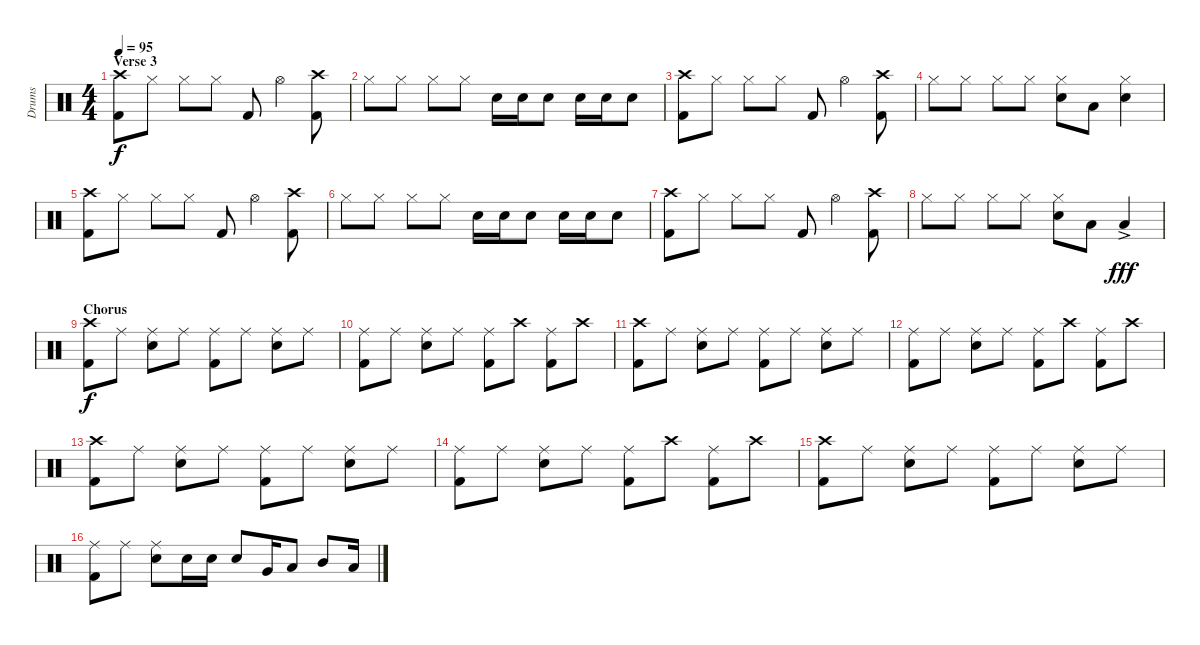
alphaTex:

\track ("Drums" "Drums") {instrument percussion}
\staff {score}
\articulation defaults
\ts (4 4)
\section ("" "Verse 3")
\tempo 95
\clef neutral
\ks c
("Kick (hit) 2" "Crash high (hit)").8{dy f} "Hi-Hat (closed)".8 "Hi-Hat (closed)".8 "Hi-Hat (closed)".8 "Kick (hit) 2".8 "Hi-Hat (open)".4 ("Kick (hit) 2" "Crash high (hit)").8 |
"Hi-Hat (closed)".8 "Hi-Hat (closed)".8 "Hi-Hat (closed)".8 "Hi-Hat (closed)".8 "Snare (hit) 2".16 "Snare (hit) 2".16 "Snare (hit) 2".8 "Snare (hit) 2".16 "Snare (hit) 2".16 "Snare (hit) 2".8 |
("Kick (hit) 2" "Crash high (hit)").8 "Hi-Hat (closed)".8 "Hi-Hat (closed)".8 "Hi-Hat (closed)".8 "Kick (hit) 2".8 "Hi-Hat (open)".4 ("Kick (hit) 2" "Crash high (hit)").8 |
"Hi-Hat (closed)".8 "Hi-Hat (closed)".8 "Hi-Hat (closed)".8 "Hi-Hat (closed)".8 ("Snare (hit) 2" "Hi-Hat (closed)").8 "Low Tom (hit)".8 ("Snare (hit) 2" "Hi-Hat (closed)").4 |
("Kick (hit) 2" "Crash high (hit)").8 "Hi-Hat (closed)".8 "Hi-Hat (closed)".8 "Hi-Hat (closed)".8 "Kick (hit) 2".8 "Hi-Hat (open)".4 ("Kick (hit) 2" "Crash high (hit)").8 |
"Hi-Hat (closed)".8 "Hi-Hat (closed)".8 "Hi-Hat (closed)".8 "Hi-Hat (closed)".8 "Snare (hit) 2".16 "Snare (hit) 2".16 "Snare (hit) 2".8 "Snare (hit) 2".16 "Snare (hit) 2".16 "Snare (hit) 2".8 |
("Kick (hit) 2" "Crash high (hit)").8 "Hi-Hat (closed)".8 "Hi-Hat (closed)".8 "Hi-Hat (closed)".8 "Kick (hit) 2".8 "Hi-Hat (open)".4 ("Kick (hit) 2" "Crash high (hit)").8 |
"Hi-Hat (closed)".8 "Hi-Hat (closed)".8 "Hi-Hat (closed)".8 "Hi-Hat (closed)".8 ("Snare (hit) 2" "Hi-Hat (closed)").8 "Low Tom (hit)".8 "Low Floor Tom (hit)"{ac}.4{dy fff} |
\section ("" "Chorus")
("Kick (hit) 2" "Crash high (hit)").8{dy f} "Ride (middle)".8 ("Snare (hit) 2" "Ride (middle)").8 "Ride (middle)".8 ("Kick (hit) 2" "Ride (middle)").8 "Ride (middle)".8 ("Snare (hit) 2" "Ride (middle)").8 "Ride (middle)".8 |
("Kick (hit) 2" "Ride (middle)").8 "Ride (middle)".8 ("Snare (hit) 2" "Ride (middle)").8 "Ride (middle)".8 ("Kick (hit) 2" "Ride (middle)").8 "Crash high (hit)".8 ("Kick (hit) 2" "Ride (middle)").8 "Crash high (hit)".8 |
("Kick (hit) 2" "Crash high (hit)").8 "Ride (middle)".8 ("Snare (hit) 2" "Ride (middle)").8 "Ride (middle)".8 ("Kick (hit) 2" "Ride (middle)").8 "Ride (middle)".8 ("Snare (hit) 2" "Ride (middle)").8 "Ride (middle)".8 |
("Kick (hit) 2" "Ride (middle)").8 "Ride (middle)".8 ("Snare (hit) 2" "Ride (middle)").8 "Ride (middle)".8 ("Kick (hit) 2" "Ride (middle)").8 "Crash high (hit)".8 ("Kick (hit) 2" "Ride (middle)").8 "Crash high (hit)".8 |
("Kick (hit) 2" "Crash high (hit)").8 "Ride (middle)".8 ("Snare (hit) 2" "Ride (middle)").8 "Ride (middle)".8 ("Kick (hit) 2" "Ride (middle)").8 "Ride (middle)".8 ("Snare (hit) 2" "Ride (middle)").8 "Ride (middle)".8 |
("Kick (hit) 2" "Ride (middle)").8 "Ride (middle)".8 ("Snare (hit) 2" "Ride (middle)").8 "Ride (middle)".8 ("Kick (hit) 2" "Ride (middle)").8 "Crash high (hit)".8 ("Kick (hit) 2" "Ride (middle)").8 "Crash high (hit)".8 |
("Kick (hit) 2" "Crash high (hit)").8 "Ride (middle)".8 ("Snare (hit) 2" "Ride (middle)").8 "Ride (middle)".8 ("Kick (hit) 2" "Ride (middle)").8 "Ride (middle)".8 ("Snare (hit) 2" "Ride (middle)").8 "Ride (middle)".8 |
("Kick (hit) 2" "Ride (middle)").8 "Ride (middle)".8 ("Snare (hit) 2" "Ride (middle)").8 "Snare (hit) 2".16 "Snare (hit) 2".16 "Snare (hit) 2".8 "Very Low Tom (hit)".16 "Low Tom (hit)".8 "Mid Tom (hit)".8 "Low Tom (hit)".16
